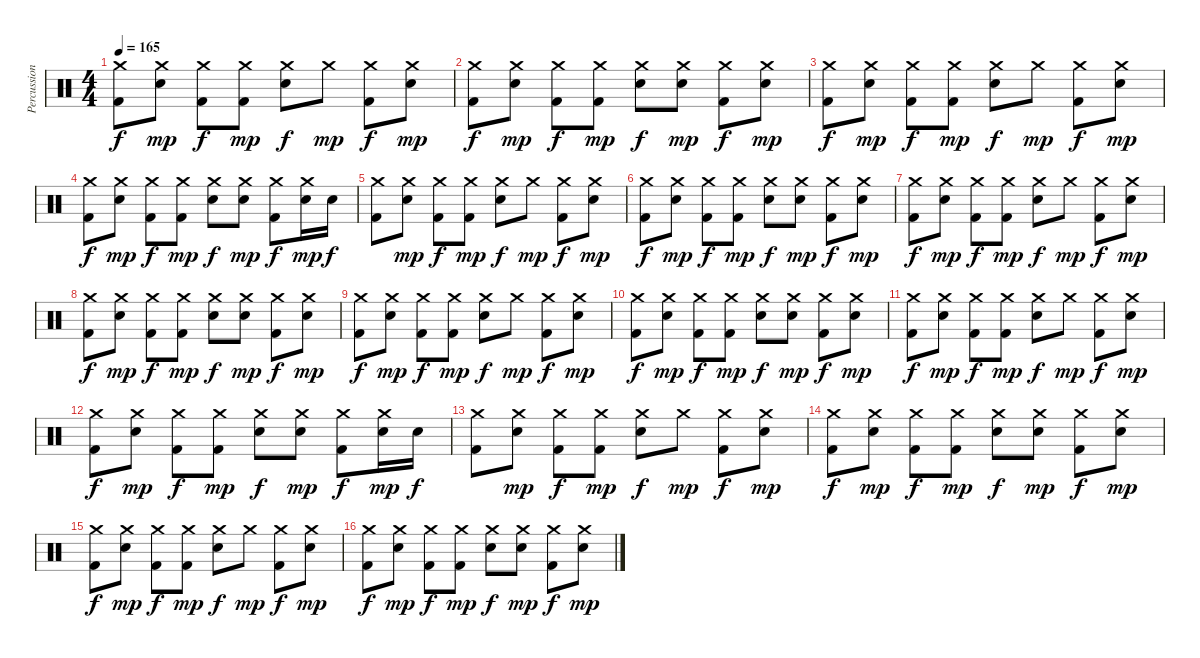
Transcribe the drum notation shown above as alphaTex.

\track ("Percussion" "Percussion") {instrument percussion}
\staff {score}
\articulation defaults
\ts (4 4)
\tempo 165
\clef neutral
\ks c
("Crash medium (hit)" "Kick (hit) 2").8{dy f} ("Crash medium (hit)" "Snare (hit) 2").8{dy mp} ("Crash medium (hit)" "Kick (hit) 2").8{dy f} ("Crash medium (hit)" "Kick (hit) 2").8{dy mp} ("Crash medium (hit)" "Snare (hit) 2").8{dy f} "Crash medium (hit)".8{dy mp} ("Crash medium (hit)" "Kick (hit) 2").8{dy f} ("Crash medium (hit)" "Snare (hit) 2").8{dy mp} |
("Crash medium (hit)" "Kick (hit) 2").8{dy f} ("Crash medium (hit)" "Snare (hit) 2").8{dy mp} ("Crash medium (hit)" "Kick (hit) 2").8{dy f} ("Crash medium (hit)" "Kick (hit) 2").8{dy mp} ("Crash medium (hit)" "Snare (hit) 2").8{dy f} ("Crash medium (hit)" "Snare (hit) 2").8{dy mp} ("Crash medium (hit)" "Kick (hit) 2").8{dy f} ("Crash medium (hit)" "Snare (hit) 2").8{dy mp} |
("Crash medium (hit)" "Kick (hit) 2").8{dy f} ("Crash medium (hit)" "Snare (hit) 2").8{dy mp} ("Crash medium (hit)" "Kick (hit) 2").8{dy f} ("Crash medium (hit)" "Kick (hit) 2").8{dy mp} ("Crash medium (hit)" "Snare (hit) 2").8{dy f} "Crash medium (hit)".8{dy mp} ("Crash medium (hit)" "Kick (hit) 2").8{dy f} ("Crash medium (hit)" "Snare (hit) 2").8{dy mp} |
("Crash medium (hit)" "Kick (hit) 2").8{dy f} ("Crash medium (hit)" "Snare (hit) 2").8{dy mp} ("Crash medium (hit)" "Kick (hit) 2").8{dy f} ("Crash medium (hit)" "Kick (hit) 2").8{dy mp} ("Crash medium (hit)" "Snare (hit) 2").8{dy f} ("Crash medium (hit)" "Snare (hit) 2").8{dy mp} ("Crash medium (hit)" "Kick (hit) 2").8{dy f} ("Crash medium (hit)" "Snare (hit) 2").16{dy mp} "Snare (hit) 2".16{dy f} |
("Crash medium (hit)" "Kick (hit) 2").8 ("Crash medium (hit)" "Snare (hit) 2").8{dy mp} ("Crash medium (hit)" "Kick (hit) 2").8{dy f} ("Crash medium (hit)" "Kick (hit) 2").8{dy mp} ("Crash medium (hit)" "Snare (hit) 2").8{dy f} "Crash medium (hit)".8{dy mp} ("Crash medium (hit)" "Kick (hit) 2").8{dy f} ("Crash medium (hit)" "Snare (hit) 2").8{dy mp} |
("Crash medium (hit)" "Kick (hit) 2").8{dy f} ("Crash medium (hit)" "Snare (hit) 2").8{dy mp} ("Crash medium (hit)" "Kick (hit) 2").8{dy f} ("Crash medium (hit)" "Kick (hit) 2").8{dy mp} ("Crash medium (hit)" "Snare (hit) 2").8{dy f} ("Crash medium (hit)" "Snare (hit) 2").8{dy mp} ("Crash medium (hit)" "Kick (hit) 2").8{dy f} ("Crash medium (hit)" "Snare (hit) 2").8{dy mp} |
("Crash medium (hit)" "Kick (hit) 2").8{dy f} ("Crash medium (hit)" "Snare (hit) 2").8{dy mp} ("Crash medium (hit)" "Kick (hit) 2").8{dy f} ("Crash medium (hit)" "Kick (hit) 2").8{dy mp} ("Crash medium (hit)" "Snare (hit) 2").8{dy f} "Crash medium (hit)".8{dy mp} ("Crash medium (hit)" "Kick (hit) 2").8{dy f} ("Crash medium (hit)" "Snare (hit) 2").8{dy mp} |
("Crash medium (hit)" "Kick (hit) 2").8{dy f} ("Crash medium (hit)" "Snare (hit) 2").8{dy mp} ("Crash medium (hit)" "Kick (hit) 2").8{dy f} ("Crash medium (hit)" "Kick (hit) 2").8{dy mp} ("Crash medium (hit)" "Snare (hit) 2").8{dy f} ("Crash medium (hit)" "Snare (hit) 2").8{dy mp} ("Crash medium (hit)" "Kick (hit) 2").8{dy f} ("Crash medium (hit)" "Snare (hit) 2").8{dy mp} |
("Crash medium (hit)" "Kick (hit) 2").8{dy f} ("Crash medium (hit)" "Snare (hit) 2").8{dy mp} ("Crash medium (hit)" "Kick (hit) 2").8{dy f} ("Crash medium (hit)" "Kick (hit) 2").8{dy mp} ("Crash medium (hit)" "Snare (hit) 2").8{dy f} "Crash medium (hit)".8{dy mp} ("Crash medium (hit)" "Kick (hit) 2").8{dy f} ("Crash medium (hit)" "Snare (hit) 2").8{dy mp} |
("Crash medium (hit)" "Kick (hit) 2").8{dy f} ("Crash medium (hit)" "Snare (hit) 2").8{dy mp} ("Crash medium (hit)" "Kick (hit) 2").8{dy f} ("Crash medium (hit)" "Kick (hit) 2").8{dy mp} ("Crash medium (hit)" "Snare (hit) 2").8{dy f} ("Crash medium (hit)" "Snare (hit) 2").8{dy mp} ("Crash medium (hit)" "Kick (hit) 2").8{dy f} ("Crash medium (hit)" "Snare (hit) 2").8{dy mp} |
("Crash medium (hit)" "Kick (hit) 2").8{dy f} ("Crash medium (hit)" "Snare (hit) 2").8{dy mp} ("Crash medium (hit)" "Kick (hit) 2").8{dy f} ("Crash medium (hit)" "Kick (hit) 2").8{dy mp} ("Crash medium (hit)" "Snare (hit) 2").8{dy f} "Crash medium (hit)".8{dy mp} ("Crash medium (hit)" "Kick (hit) 2").8{dy f} ("Crash medium (hit)" "Snare (hit) 2").8{dy mp} |
("Crash medium (hit)" "Kick (hit) 2").8{dy f} ("Crash medium (hit)" "Snare (hit) 2").8{dy mp} ("Crash medium (hit)" "Kick (hit) 2").8{dy f} ("Crash medium (hit)" "Kick (hit) 2").8{dy mp} ("Crash medium (hit)" "Snare (hit) 2").8{dy f} ("Crash medium (hit)" "Snare (hit) 2").8{dy mp} ("Crash medium (hit)" "Kick (hit) 2").8{dy f} ("Crash medium (hit)" "Snare (hit) 2").16{dy mp} "Snare (hit) 2".16{dy f} |
("Crash medium (hit)" "Kick (hit) 2").8 ("Crash medium (hit)" "Snare (hit) 2").8{dy mp} ("Crash medium (hit)" "Kick (hit) 2").8{dy f} ("Crash medium (hit)" "Kick (hit) 2").8{dy mp} ("Crash medium (hit)" "Snare (hit) 2").8{dy f} "Crash medium (hit)".8{dy mp} ("Crash medium (hit)" "Kick (hit) 2").8{dy f} ("Crash medium (hit)" "Snare (hit) 2").8{dy mp} |
("Crash medium (hit)" "Kick (hit) 2").8{dy f} ("Crash medium (hit)" "Snare (hit) 2").8{dy mp} ("Crash medium (hit)" "Kick (hit) 2").8{dy f} ("Crash medium (hit)" "Kick (hit) 2").8{dy mp} ("Crash medium (hit)" "Snare (hit) 2").8{dy f} ("Crash medium (hit)" "Snare (hit) 2").8{dy mp} ("Crash medium (hit)" "Kick (hit) 2").8{dy f} ("Crash medium (hit)" "Snare (hit) 2").8{dy mp} |
("Crash medium (hit)" "Kick (hit) 2").8{dy f} ("Crash medium (hit)" "Snare (hit) 2").8{dy mp} ("Crash medium (hit)" "Kick (hit) 2").8{dy f} ("Crash medium (hit)" "Kick (hit) 2").8{dy mp} ("Crash medium (hit)" "Snare (hit) 2").8{dy f} "Crash medium (hit)".8{dy mp} ("Crash medium (hit)" "Kick (hit) 2").8{dy f} ("Crash medium (hit)" "Snare (hit) 2").8{dy mp} |
("Crash medium (hit)" "Kick (hit) 2").8{dy f} ("Crash medium (hit)" "Snare (hit) 2").8{dy mp} ("Crash medium (hit)" "Kick (hit) 2").8{dy f} ("Crash medium (hit)" "Kick (hit) 2").8{dy mp} ("Crash medium (hit)" "Snare (hit) 2").8{dy f} ("Crash medium (hit)" "Snare (hit) 2").8{dy mp} ("Crash medium (hit)" "Kick (hit) 2").8{dy f} ("Crash medium (hit)" "Snare (hit) 2").8{dy mp}
